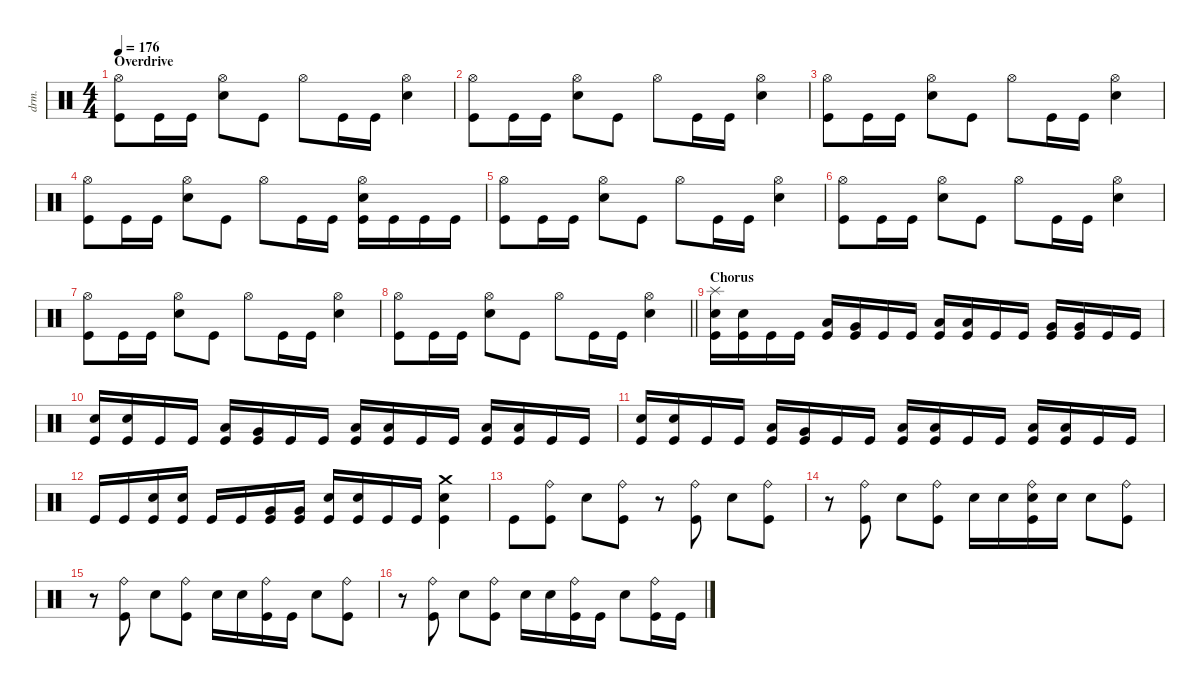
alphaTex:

\defaultSystemsLayout 4
\hideDynamics
\bracketExtendMode nobrackets
\track ("Gene Hoglan " "drm.") {instrument percussion}
\staff {score}
\articulation defaults
\ts (4 4)
\section ("" "Overdrive")
\tempo 176
\clef neutral
\ks c
("Hi-Hat (open)" "Kick (hit)").8{dy f} "Kick (hit)".16 "Kick (hit)".16 ("Hi-Hat (open)" "Snare (hit) 2").8 "Kick (hit)".8 "Hi-Hat (open)".8 "Kick (hit)".16 "Kick (hit)".16 ("Hi-Hat (open)" "Snare (hit) 2").4 |
("Hi-Hat (open)" "Kick (hit)").8 "Kick (hit)".16 "Kick (hit)".16 ("Hi-Hat (open)" "Snare (hit) 2").8 "Kick (hit)".8 "Hi-Hat (open)".8 "Kick (hit)".16 "Kick (hit)".16 ("Hi-Hat (open)" "Snare (hit) 2").4 |
("Hi-Hat (open)" "Kick (hit)").8 "Kick (hit)".16 "Kick (hit)".16 ("Hi-Hat (open)" "Snare (hit) 2").8 "Kick (hit)".8 "Hi-Hat (open)".8 "Kick (hit)".16 "Kick (hit)".16 ("Hi-Hat (open)" "Snare (hit) 2").4 |
("Hi-Hat (open)" "Kick (hit)").8 "Kick (hit)".16 "Kick (hit)".16 ("Hi-Hat (open)" "Snare (hit) 2").8 "Kick (hit)".8 "Hi-Hat (open)".8 "Kick (hit)".16 "Kick (hit)".16 ("Hi-Hat (open)" "Snare (hit) 2" "Kick (hit)").16 "Kick (hit)".16 "Kick (hit)".16 "Kick (hit)".16 |
("Hi-Hat (open)" "Kick (hit)").8 "Kick (hit)".16 "Kick (hit)".16 ("Hi-Hat (open)" "Snare (hit) 2").8 "Kick (hit)".8 "Hi-Hat (open)".8 "Kick (hit)".16 "Kick (hit)".16 ("Hi-Hat (open)" "Snare (hit) 2").4 |
("Hi-Hat (open)" "Kick (hit)").8 "Kick (hit)".16 "Kick (hit)".16 ("Hi-Hat (open)" "Snare (hit) 2").8 "Kick (hit)".8 "Hi-Hat (open)".8 "Kick (hit)".16 "Kick (hit)".16 ("Hi-Hat (open)" "Snare (hit) 2").4 |
("Hi-Hat (open)" "Kick (hit)").8 "Kick (hit)".16 "Kick (hit)".16 ("Hi-Hat (open)" "Snare (hit) 2").8 "Kick (hit)".8 "Hi-Hat (open)".8 "Kick (hit)".16 "Kick (hit)".16 ("Hi-Hat (open)" "Snare (hit) 2").4 |
\barLineRight lightlight
("Hi-Hat (open)" "Kick (hit)").8 "Kick (hit)".16 "Kick (hit)".16 ("Hi-Hat (open)" "Snare (hit) 2").8 "Kick (hit)".8 "Hi-Hat (open)".8 "Kick (hit)".16 "Kick (hit)".16 ("Hi-Hat (open)" "Snare (hit) 2").4 |
\section ("" "Chorus")
("Splash (hit)" "Snare (hit) 2" "Kick (hit)").16 ("Snare (hit) 2" "Kick (hit)").16 "Kick (hit)".16 "Kick (hit)".16 ("Low Tom (hit)" "Kick (hit)").16 ("Very Low Tom (hit)" "Kick (hit)").16 "Kick (hit)".16 "Kick (hit)".16 ("Low Tom (hit)" "Kick (hit)").16 ("Low Tom (hit)" "Kick (hit)").16 "Kick (hit)".16 "Kick (hit)".16 ("Very Low Tom (hit)" "Kick (hit)").16 ("Very Low Tom (hit)" "Kick (hit)").16 "Kick (hit)".16 "Kick (hit)".16 |
("Snare (hit) 2" "Kick (hit)").16 ("Snare (hit) 2" "Kick (hit)").16 "Kick (hit)".16 "Kick (hit)".16 ("Low Tom (hit)" "Kick (hit)").16 ("Very Low Tom (hit)" "Kick (hit)").16 "Kick (hit)".16 "Kick (hit)".16 ("Low Tom (hit)" "Kick (hit)").16 ("Low Tom (hit)" "Kick (hit)").16 "Kick (hit)".16 "Kick (hit)".16 ("Low Floor Tom (hit)" "Kick (hit)").16 ("Low Floor Tom (hit)" "Kick (hit)").16 "Kick (hit)".16 "Kick (hit)".16 |
("Snare (hit) 2" "Kick (hit)").16 ("Snare (hit) 2" "Kick (hit)").16 "Kick (hit)".16 "Kick (hit)".16 ("Low Tom (hit)" "Kick (hit)").16 ("Very Low Tom (hit)" "Kick (hit)").16 "Kick (hit)".16 "Kick (hit)".16 ("Low Tom (hit)" "Kick (hit)").16 ("Low Tom (hit)" "Kick (hit)").16 "Kick (hit)".16 "Kick (hit)".16 ("Low Floor Tom (hit)" "Kick (hit)").16 ("Low Floor Tom (hit)" "Kick (hit)").16 "Kick (hit)".16 "Kick (hit)".16 |
"Kick (hit)".16 "Kick (hit)".16 ("Snare (hit) 2" "Kick (hit)").16 ("Snare (hit) 2" "Kick (hit)").16 "Kick (hit)".16 "Kick (hit)".16 ("Very Low Tom (hit)" "Kick (hit)").16 ("Very Low Tom (hit)" "Kick (hit)").16 ("Snare (hit) 2" "Kick (hit)").16 ("Snare (hit) 2" "Kick (hit)").16 "Kick (hit)".16 "Kick (hit)".16 ("Crash medium (hit)" "Snare (hit) 2" "Kick (hit)").4 |
"Kick (hit)".8 ("Ride (bell)" "Kick (hit)").8 "Snare (hit) 2".8 ("Ride (bell)" "Kick (hit)").8 r.8 ("Ride (bell)" "Kick (hit)").8 "Snare (hit) 2".8 ("Ride (bell)" "Kick (hit)").8 |
r.8 ("Ride (bell)" "Kick (hit)").8 "Snare (hit) 2".8 ("Ride (bell)" "Kick (hit)").8 "Snare (hit) 2".16 "Snare (hit) 2".16 ("Ride (bell)" "Snare (hit) 2" "Kick (hit)").16 "Snare (hit) 2".16 "Snare (hit) 2".8 ("Ride (bell)" "Kick (hit)").8 |
r.8 ("Ride (bell)" "Kick (hit)").8 "Snare (hit) 2".8 ("Ride (bell)" "Kick (hit)").8 "Snare (hit) 2".16 "Snare (hit) 2".16 ("Ride (bell)" "Kick (hit)").16 "Kick (hit)".16 "Snare (hit) 2".8 ("Ride (bell)" "Kick (hit)").8 |
r.8 ("Ride (bell)" "Kick (hit)").8 "Snare (hit) 2".8 ("Ride (bell)" "Kick (hit)").8 "Snare (hit) 2".16 "Snare (hit) 2".16 ("Ride (bell)" "Kick (hit)").16 "Kick (hit)".16 "Snare (hit) 2".8 ("Ride (bell)" "Kick (hit)").16 "Kick (hit)".16
